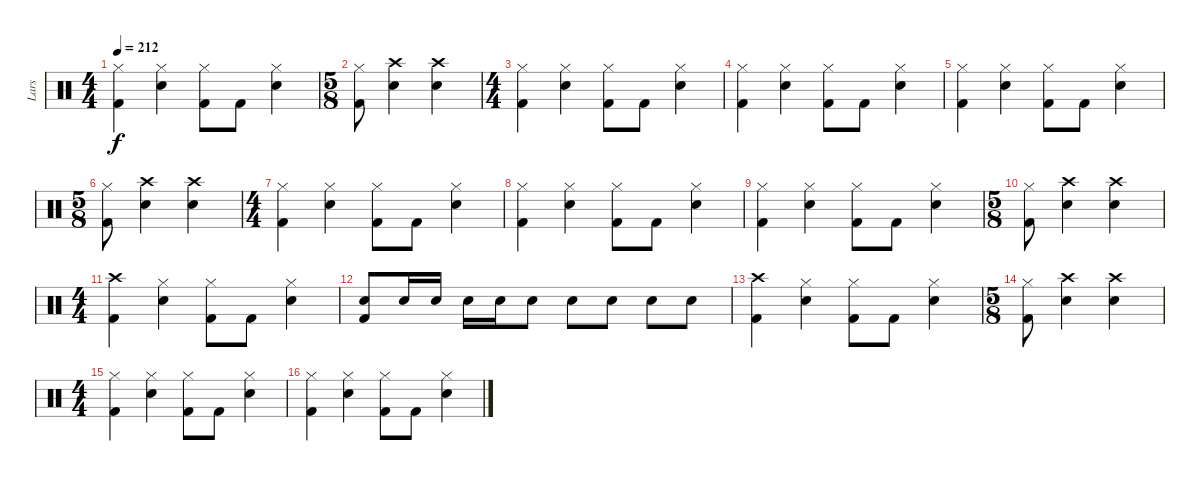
\track ("Lars" "Lars") {instrument percussion}
\staff {score}
\articulation defaults
\ts (4 4)
\tempo 212
\clef neutral
\ks c
("Hi-Hat (closed)" "Kick (hit) 2").4{dy f} ("Hi-Hat (closed)" "Snare (hit) 2").4 ("Hi-Hat (closed)" "Kick (hit) 2").8 "Kick (hit) 2".8 ("Hi-Hat (closed)" "Snare (hit) 2").4 |
\ts (5 8)
("Hi-Hat (closed)" "Kick (hit) 2").8 ("Crash high (hit)" "Snare (hit) 2").4 ("Crash high (hit)" "Snare (hit) 2").4 |
\ts (4 4)
("Hi-Hat (closed)" "Kick (hit) 2").4 ("Hi-Hat (closed)" "Snare (hit) 2").4 ("Hi-Hat (closed)" "Kick (hit) 2").8 "Kick (hit) 2".8 ("Hi-Hat (closed)" "Snare (hit) 2").4 |
("Hi-Hat (closed)" "Kick (hit) 2").4 ("Hi-Hat (closed)" "Snare (hit) 2").4 ("Hi-Hat (closed)" "Kick (hit) 2").8 "Kick (hit) 2".8 ("Hi-Hat (closed)" "Snare (hit) 2").4 |
("Hi-Hat (closed)" "Kick (hit) 2").4 ("Hi-Hat (closed)" "Snare (hit) 2").4 ("Hi-Hat (closed)" "Kick (hit) 2").8 "Kick (hit) 2".8 ("Hi-Hat (closed)" "Snare (hit) 2").4 |
\ts (5 8)
("Hi-Hat (closed)" "Kick (hit) 2").8 ("Crash high (hit)" "Snare (hit) 2").4 ("Crash high (hit)" "Snare (hit) 2").4 |
\ts (4 4)
("Hi-Hat (closed)" "Kick (hit) 2").4 ("Hi-Hat (closed)" "Snare (hit) 2").4 ("Hi-Hat (closed)" "Kick (hit) 2").8 "Kick (hit) 2".8 ("Hi-Hat (closed)" "Snare (hit) 2").4 |
("Hi-Hat (closed)" "Kick (hit) 2").4 ("Hi-Hat (closed)" "Snare (hit) 2").4 ("Hi-Hat (closed)" "Kick (hit) 2").8 "Kick (hit) 2".8 ("Hi-Hat (closed)" "Snare (hit) 2").4 |
("Hi-Hat (closed)" "Kick (hit) 2").4 ("Hi-Hat (closed)" "Snare (hit) 2").4 ("Hi-Hat (closed)" "Kick (hit) 2").8 "Kick (hit) 2".8 ("Hi-Hat (closed)" "Snare (hit) 2").4 |
\ts (5 8)
("Hi-Hat (closed)" "Kick (hit) 2").8 ("Crash high (hit)" "Snare (hit) 2").4 ("Crash high (hit)" "Snare (hit) 2").4 |
\ts (4 4)
("Crash high (hit)" "Kick (hit) 2").4 ("Hi-Hat (closed)" "Snare (hit) 2").4 ("Hi-Hat (closed)" "Kick (hit) 2").8 "Kick (hit) 2".8 ("Hi-Hat (closed)" "Snare (hit) 2").4 |
("Snare (hit) 2" "Kick (hit) 2").8 "Snare (hit) 2".16 "Snare (hit) 2".16 "Snare (hit) 2".16 "Snare (hit) 2".16 "Snare (hit) 2".8 "Snare (hit) 2".8 "Snare (hit) 2".8 "Snare (hit) 2".8 "Snare (hit) 2".8 |
("Crash high (hit)" "Kick (hit) 2").4 ("Hi-Hat (closed)" "Snare (hit) 2").4 ("Hi-Hat (closed)" "Kick (hit) 2").8 "Kick (hit) 2".8 ("Hi-Hat (closed)" "Snare (hit) 2").4 |
\ts (5 8)
("Hi-Hat (closed)" "Kick (hit) 2").8 ("Crash high (hit)" "Snare (hit) 2").4 ("Crash high (hit)" "Snare (hit) 2").4 |
\ts (4 4)
("Hi-Hat (closed)" "Kick (hit) 2").4 ("Hi-Hat (closed)" "Snare (hit) 2").4 ("Hi-Hat (closed)" "Kick (hit) 2").8 "Kick (hit) 2".8 ("Hi-Hat (closed)" "Snare (hit) 2").4 |
("Hi-Hat (closed)" "Kick (hit) 2").4 ("Hi-Hat (closed)" "Snare (hit) 2").4 ("Hi-Hat (closed)" "Kick (hit) 2").8 "Kick (hit) 2".8 ("Hi-Hat (closed)" "Snare (hit) 2").4
